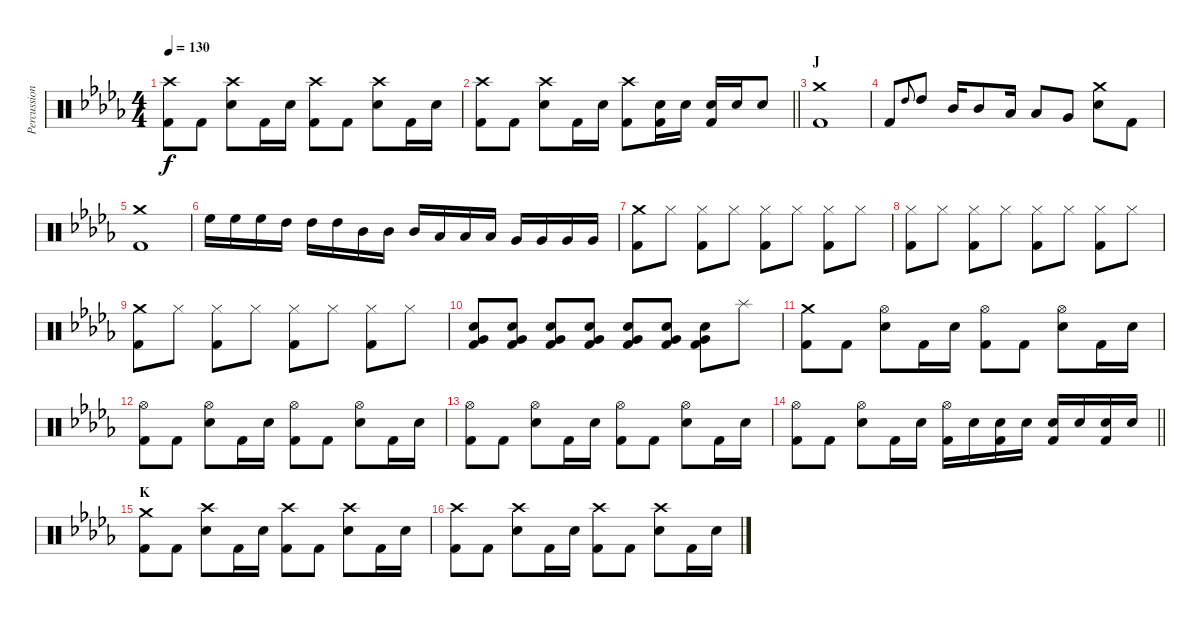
\track ("Percussion" "Percussion") {instrument percussion}
\staff {score}
\articulation defaults
\ts (4 4)
\tempo 130
\clef neutral
\ks db
("Crash high (hit)" "Kick (hit) 2").8{dy f} "Kick (hit) 2".8 ("Crash high (hit)" "Electric Snare (hit)").8 "Kick (hit) 2".16 "Electric Snare (hit)".16 ("Crash high (hit)" "Kick (hit) 2").8 "Kick (hit) 2".8 ("Crash high (hit)" "Electric Snare (hit)").8 "Kick (hit) 2".16 "Electric Snare (hit)".16 |
\barLineRight lightlight
("Crash high (hit)" "Kick (hit) 2").8 "Kick (hit) 2".8 ("Crash high (hit)" "Electric Snare (hit)").8 "Kick (hit) 2".16 "Electric Snare (hit)".16 ("Crash high (hit)" "Kick (hit) 2").8 ("Electric Snare (hit)" "Kick (hit) 2").16 "Electric Snare (hit)".16 ("Electric Snare (hit)" "Kick (hit) 2").16 "Electric Snare (hit)".16 "Electric Snare (hit)".8 |
\section ("" "J")
("Crash medium (hit)" "Kick (hit) 2").1 |
"Kick (hit) 2".8 "High Tom (hit)".8{gr onbeat} "High Tom (hit)".8 "Mid Tom (hit)".16 "Mid Tom (hit)".8 "Low Tom (hit)".16 "Low Tom (hit)".8 "Very Low Tom (hit)".8 ("Crash medium (hit)" "Snare (hit) 2").8 "Kick (hit) 2".8 |
("Crash medium (hit)" "Kick (hit) 2").1 |
"High Floor Tom (hit)".16 "High Floor Tom (hit)".16 "High Floor Tom (hit)".16 "High Tom (hit)".16 "High Tom (hit)".16 "High Tom (hit)".16 "Mid Tom (hit)".16 "Mid Tom (hit)".16 "Mid Tom (hit)".16 "Low Tom (hit)".16 "Low Tom (hit)".16 "Low Tom (hit)".16 "Very Low Tom (hit)".16 "Very Low Tom (hit)".16 "Very Low Tom (hit)".16 "Very Low Tom (hit)".16 |
("Crash medium (hit)" "Kick (hit) 2").8 "Hi-Hat (closed)".8 ("Hi-Hat (closed)" "Kick (hit) 2").8 "Hi-Hat (closed)".8 ("Hi-Hat (closed)" "Kick (hit) 2").8 "Hi-Hat (closed)".8 ("Hi-Hat (closed)" "Kick (hit) 2").8 "Hi-Hat (closed)".8 |
("Hi-Hat (closed)" "Kick (hit) 2").8 "Hi-Hat (closed)".8 ("Hi-Hat (closed)" "Kick (hit) 2").8 "Hi-Hat (closed)".8 ("Hi-Hat (closed)" "Kick (hit) 2").8 "Hi-Hat (closed)".8 ("Hi-Hat (closed)" "Kick (hit) 2").8 "Hi-Hat (closed)".8 |
("Crash medium (hit)" "Kick (hit) 2").8 "Hi-Hat (closed)".8 ("Hi-Hat (closed)" "Kick (hit) 2").8 "Hi-Hat (closed)".8 ("Hi-Hat (closed)" "Kick (hit) 2").8 "Hi-Hat (closed)".8 ("Hi-Hat (closed)" "Kick (hit) 2").8 "Hi-Hat (closed)".8 |
("Very Low Tom (hit)" "Electric Snare (hit)" "Kick (hit) 2").8 ("Very Low Tom (hit)" "Electric Snare (hit)" "Kick (hit) 2").8 ("Very Low Tom (hit)" "Electric Snare (hit)" "Kick (hit) 2").8 ("Very Low Tom (hit)" "Electric Snare (hit)" "Kick (hit) 2").8 ("Very Low Tom (hit)" "Electric Snare (hit)" "Kick (hit) 2").8 ("Very Low Tom (hit)" "Electric Snare (hit)" "Kick (hit) 2").8 ("Very Low Tom (hit)" "Electric Snare (hit)" "Kick (hit) 2").8 "Splash (hit)".8 |
("Crash medium (hit)" "Kick (hit) 2").8 "Kick (hit) 2".8 ("Hi-Hat (open)" "Electric Snare (hit)").8 "Kick (hit) 2".16 "Electric Snare (hit)".16 ("Hi-Hat (open)" "Kick (hit) 2").8 "Kick (hit) 2".8 ("Hi-Hat (open)" "Electric Snare (hit)").8 "Kick (hit) 2".16 "Electric Snare (hit)".16 |
("Hi-Hat (open)" "Kick (hit) 2").8 "Kick (hit) 2".8 ("Hi-Hat (open)" "Electric Snare (hit)").8 "Kick (hit) 2".16 "Electric Snare (hit)".16 ("Hi-Hat (open)" "Kick (hit) 2").8 "Kick (hit) 2".8 ("Hi-Hat (open)" "Electric Snare (hit)").8 "Kick (hit) 2".16 "Electric Snare (hit)".16 |
("Hi-Hat (open)" "Kick (hit) 2").8 "Kick (hit) 2".8 ("Hi-Hat (open)" "Electric Snare (hit)").8 "Kick (hit) 2".16 "Electric Snare (hit)".16 ("Hi-Hat (open)" "Kick (hit) 2").8 "Kick (hit) 2".8 ("Hi-Hat (open)" "Electric Snare (hit)").8 "Kick (hit) 2".16 "Electric Snare (hit)".16 |
\barLineRight lightlight
("Hi-Hat (open)" "Kick (hit) 2").8 "Kick (hit) 2".8 ("Hi-Hat (open)" "Electric Snare (hit)").8 "Kick (hit) 2".16 "Electric Snare (hit)".16 ("Hi-Hat (open)" "Kick (hit) 2").16 "Electric Snare (hit)".16 ("Electric Snare (hit)" "Kick (hit) 2").16 "Electric Snare (hit)".16 ("Electric Snare (hit)" "Kick (hit) 2").16 "Electric Snare (hit)".16 ("Electric Snare (hit)" "Kick (hit) 2").16 "Electric Snare (hit)".16 |
\section ("" "K")
("Crash medium (hit)" "Kick (hit) 2").8 "Kick (hit) 2".8 ("Crash high (hit)" "Electric Snare (hit)").8 "Kick (hit) 2".16 "Electric Snare (hit)".16 ("Crash high (hit)" "Kick (hit) 2").8 "Kick (hit) 2".8 ("Crash high (hit)" "Electric Snare (hit)").8 "Kick (hit) 2".16 "Electric Snare (hit)".16 |
("Crash high (hit)" "Kick (hit) 2").8 "Kick (hit) 2".8 ("Crash high (hit)" "Electric Snare (hit)").8 "Kick (hit) 2".16 "Electric Snare (hit)".16 ("Crash high (hit)" "Kick (hit) 2").8 "Kick (hit) 2".8 ("Crash high (hit)" "Electric Snare (hit)").8 "Kick (hit) 2".16 "Electric Snare (hit)".16
